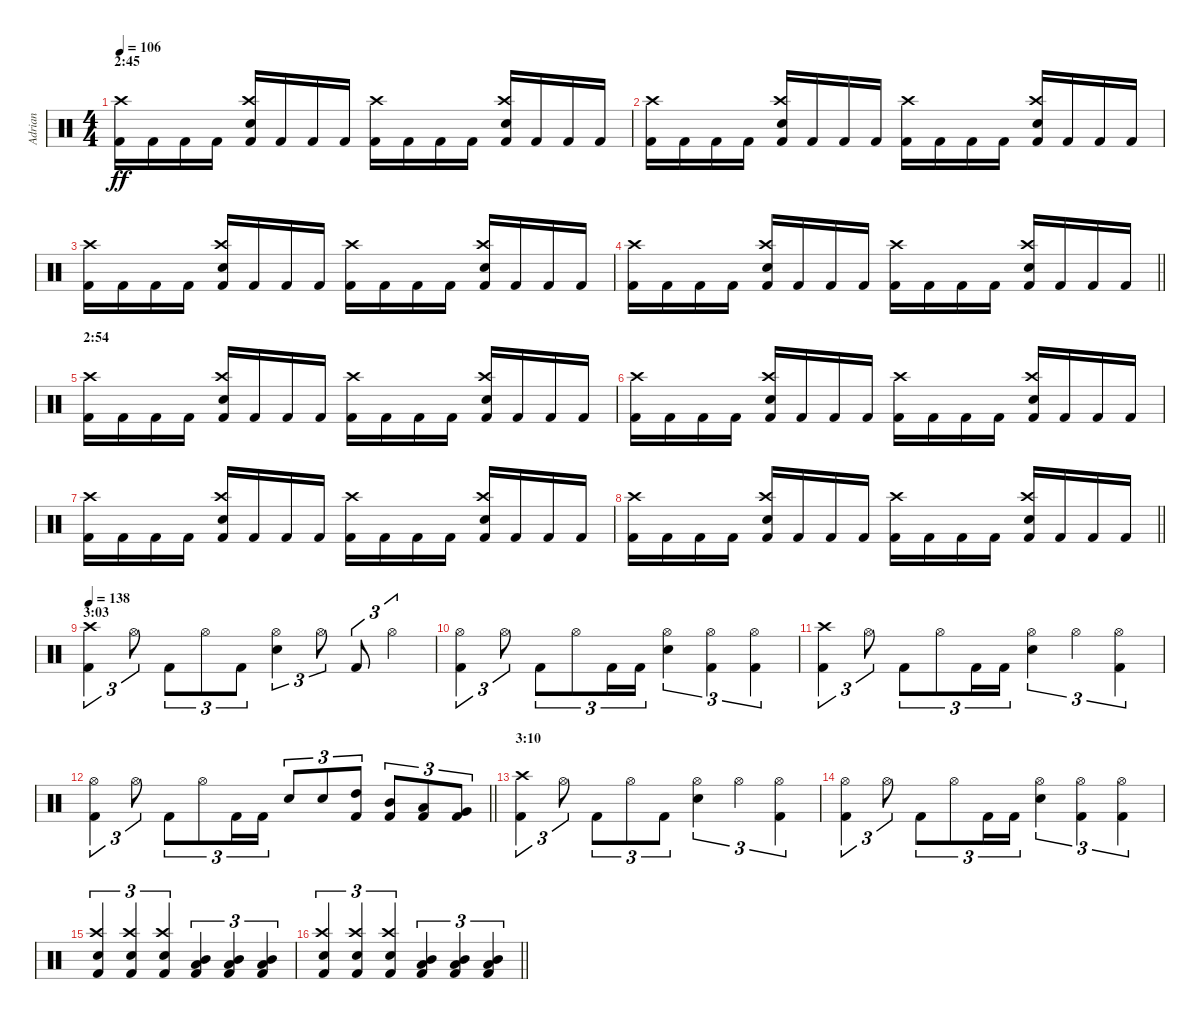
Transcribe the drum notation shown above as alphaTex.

\track ("Adrian" "Adrian") {instrument percussion}
\staff {score}
\articulation defaults
\ts (4 4)
\section ("" "2:45")
\tempo 106
\clef neutral
\ks c
("Kick (hit) 2" "Crash high (hit)").16{dy ff} "Kick (hit) 2".16 "Kick (hit) 2".16 "Kick (hit) 2".16 ("Kick (hit) 2" "Snare (hit) 2" "Crash high (hit)").16 "Kick (hit) 2".16 "Kick (hit) 2".16 "Kick (hit) 2".16 ("Kick (hit) 2" "Crash high (hit)").16 "Kick (hit) 2".16 "Kick (hit) 2".16 "Kick (hit) 2".16 ("Kick (hit) 2" "Snare (hit) 2" "Crash high (hit)").16 "Kick (hit) 2".16 "Kick (hit) 2".16 "Kick (hit) 2".16 |
("Kick (hit) 2" "Crash high (hit)").16 "Kick (hit) 2".16 "Kick (hit) 2".16 "Kick (hit) 2".16 ("Kick (hit) 2" "Snare (hit) 2" "Crash high (hit)").16 "Kick (hit) 2".16 "Kick (hit) 2".16 "Kick (hit) 2".16 ("Kick (hit) 2" "Crash high (hit)").16 "Kick (hit) 2".16 "Kick (hit) 2".16 "Kick (hit) 2".16 ("Kick (hit) 2" "Snare (hit) 2" "Crash high (hit)").16 "Kick (hit) 2".16 "Kick (hit) 2".16 "Kick (hit) 2".16 |
("Kick (hit) 2" "Crash high (hit)").16 "Kick (hit) 2".16 "Kick (hit) 2".16 "Kick (hit) 2".16 ("Kick (hit) 2" "Snare (hit) 2" "Crash high (hit)").16 "Kick (hit) 2".16 "Kick (hit) 2".16 "Kick (hit) 2".16 ("Kick (hit) 2" "Crash high (hit)").16 "Kick (hit) 2".16 "Kick (hit) 2".16 "Kick (hit) 2".16 ("Kick (hit) 2" "Snare (hit) 2" "Crash high (hit)").16 "Kick (hit) 2".16 "Kick (hit) 2".16 "Kick (hit) 2".16 |
\barLineRight lightlight
("Kick (hit) 2" "Crash high (hit)").16 "Kick (hit) 2".16 "Kick (hit) 2".16 "Kick (hit) 2".16 ("Kick (hit) 2" "Snare (hit) 2" "Crash high (hit)").16 "Kick (hit) 2".16 "Kick (hit) 2".16 "Kick (hit) 2".16 ("Kick (hit) 2" "Crash high (hit)").16 "Kick (hit) 2".16 "Kick (hit) 2".16 "Kick (hit) 2".16 ("Kick (hit) 2" "Snare (hit) 2" "Crash high (hit)").16 "Kick (hit) 2".16 "Kick (hit) 2".16 "Kick (hit) 2".16 |
\section ("" "2:54")
("Kick (hit) 2" "Crash high (hit)").16 "Kick (hit) 2".16 "Kick (hit) 2".16 "Kick (hit) 2".16 ("Kick (hit) 2" "Snare (hit) 2" "Crash high (hit)").16 "Kick (hit) 2".16 "Kick (hit) 2".16 "Kick (hit) 2".16 ("Kick (hit) 2" "Crash high (hit)").16 "Kick (hit) 2".16 "Kick (hit) 2".16 "Kick (hit) 2".16 ("Kick (hit) 2" "Snare (hit) 2" "Crash high (hit)").16 "Kick (hit) 2".16 "Kick (hit) 2".16 "Kick (hit) 2".16 |
("Kick (hit) 2" "Crash high (hit)").16 "Kick (hit) 2".16 "Kick (hit) 2".16 "Kick (hit) 2".16 ("Kick (hit) 2" "Snare (hit) 2" "Crash high (hit)").16 "Kick (hit) 2".16 "Kick (hit) 2".16 "Kick (hit) 2".16 ("Kick (hit) 2" "Crash high (hit)").16 "Kick (hit) 2".16 "Kick (hit) 2".16 "Kick (hit) 2".16 ("Kick (hit) 2" "Snare (hit) 2" "Crash high (hit)").16 "Kick (hit) 2".16 "Kick (hit) 2".16 "Kick (hit) 2".16 |
("Kick (hit) 2" "Crash high (hit)").16 "Kick (hit) 2".16 "Kick (hit) 2".16 "Kick (hit) 2".16 ("Kick (hit) 2" "Snare (hit) 2" "Crash high (hit)").16 "Kick (hit) 2".16 "Kick (hit) 2".16 "Kick (hit) 2".16 ("Kick (hit) 2" "Crash high (hit)").16 "Kick (hit) 2".16 "Kick (hit) 2".16 "Kick (hit) 2".16 ("Kick (hit) 2" "Snare (hit) 2" "Crash high (hit)").16 "Kick (hit) 2".16 "Kick (hit) 2".16 "Kick (hit) 2".16 |
\barLineRight lightlight
("Kick (hit) 2" "Crash high (hit)").16 "Kick (hit) 2".16 "Kick (hit) 2".16 "Kick (hit) 2".16 ("Kick (hit) 2" "Snare (hit) 2" "Crash high (hit)").16 "Kick (hit) 2".16 "Kick (hit) 2".16 "Kick (hit) 2".16 ("Kick (hit) 2" "Crash high (hit)").16 "Kick (hit) 2".16 "Kick (hit) 2".16 "Kick (hit) 2".16 ("Kick (hit) 2" "Snare (hit) 2" "Crash high (hit)").16 "Kick (hit) 2".16 "Kick (hit) 2".16 "Kick (hit) 2".16 |
\section ("" "3:03")
\tempo 138
("Kick (hit) 2" "Crash high (hit)").4{tu (3 2)} "Hi-Hat (open)".8{tu (3 2)} "Kick (hit) 2".8{tu (3 2)} "Hi-Hat (open)".8{tu (3 2)} "Kick (hit) 2".8{tu (3 2)} ("Snare (hit) 2" "Hi-Hat (open)").4{tu (3 2)} "Hi-Hat (open)".8{tu (3 2)} "Kick (hit) 2".8{tu (3 2)} "Hi-Hat (open)".4{tu (3 2)} |
("Kick (hit) 2" "Hi-Hat (open)").4{tu (3 2)} "Hi-Hat (open)".8{tu (3 2)} "Kick (hit) 2".8{tu (3 2)} "Hi-Hat (open)".8{tu (3 2)} "Kick (hit) 2".16{tu (3 2)} "Kick (hit) 2".16{tu (3 2)} ("Snare (hit) 2" "Hi-Hat (open)").4{tu (3 2)} ("Kick (hit) 2" "Hi-Hat (open)").4{tu (3 2)} ("Kick (hit) 2" "Hi-Hat (open)").4{tu (3 2)} |
("Kick (hit) 2" "Crash high (hit)").4{tu (3 2)} "Hi-Hat (open)".8{tu (3 2)} "Kick (hit) 2".8{tu (3 2)} "Hi-Hat (open)".8{tu (3 2)} "Kick (hit) 2".16{tu (3 2)} "Kick (hit) 2".16{tu (3 2)} ("Snare (hit) 2" "Hi-Hat (open)").4{tu (3 2)} "Hi-Hat (open)".4{tu (3 2)} ("Kick (hit) 2" "Hi-Hat (open)").4{tu (3 2)} |
\barLineRight lightlight
("Kick (hit) 2" "Hi-Hat (open)").4{tu (3 2)} "Hi-Hat (open)".8{tu (3 2)} "Kick (hit) 2".8{tu (3 2)} "Hi-Hat (open)".8{tu (3 2)} "Kick (hit) 2".16{tu (3 2)} "Kick (hit) 2".16{tu (3 2)} "Snare (hit) 2".8{tu (3 2)} "Snare (hit) 2".8{tu (3 2)} ("Kick (hit) 2" "High Tom (hit)").8{tu (3 2)} ("Kick (hit) 2" "Mid Tom (hit)").8{tu (3 2)} ("Kick (hit) 2" "Low Tom (hit)").8{tu (3 2)} ("Kick (hit) 2" "Very Low Tom (hit)").8{tu (3 2)} |
\section ("" "3:10")
("Kick (hit) 2" "Crash high (hit)").4{tu (3 2)} "Hi-Hat (open)".8{tu (3 2)} "Kick (hit) 2".8{tu (3 2)} "Hi-Hat (open)".8{tu (3 2)} "Kick (hit) 2".8{tu (3 2)} ("Snare (hit) 2" "Hi-Hat (open)").4{tu (3 2)} "Hi-Hat (open)".4{tu (3 2)} ("Kick (hit) 2" "Hi-Hat (open)").4{tu (3 2)} |
("Kick (hit) 2" "Hi-Hat (open)").4{tu (3 2)} "Hi-Hat (open)".8{tu (3 2)} "Kick (hit) 2".8{tu (3 2)} "Hi-Hat (open)".8{tu (3 2)} "Kick (hit) 2".16{tu (3 2)} "Kick (hit) 2".16{tu (3 2)} ("Snare (hit) 2" "Hi-Hat (open)").4{tu (3 2)} ("Kick (hit) 2" "Hi-Hat (open)").4{tu (3 2)} ("Kick (hit) 2" "Hi-Hat (open)").4{tu (3 2)} |
("Kick (hit) 2" "Snare (hit) 2" "Crash high (hit)").4{tu (3 2)} ("Kick (hit) 2" "Snare (hit) 2" "Crash high (hit)").4{tu (3 2)} ("Kick (hit) 2" "Snare (hit) 2" "Crash high (hit)").4{tu (3 2)} ("Kick (hit) 2" "Low Tom (hit)" "Mid Tom (hit)").4{tu (3 2)} ("Kick (hit) 2" "Low Tom (hit)" "Mid Tom (hit)").4{tu (3 2)} ("Kick (hit) 2" "Low Tom (hit)" "Mid Tom (hit)").4{tu (3 2)} |
\barLineRight lightlight
("Kick (hit) 2" "Snare (hit) 2" "Crash high (hit)").4{tu (3 2)} ("Kick (hit) 2" "Snare (hit) 2" "Crash high (hit)").4{tu (3 2)} ("Kick (hit) 2" "Snare (hit) 2" "Crash high (hit)").4{tu (3 2)} ("Kick (hit) 2" "Low Tom (hit)" "Mid Tom (hit)").4{tu (3 2)} ("Kick (hit) 2" "Low Tom (hit)" "Mid Tom (hit)").4{tu (3 2)} ("Kick (hit) 2" "Low Tom (hit)" "Mid Tom (hit)").4{tu (3 2)}
